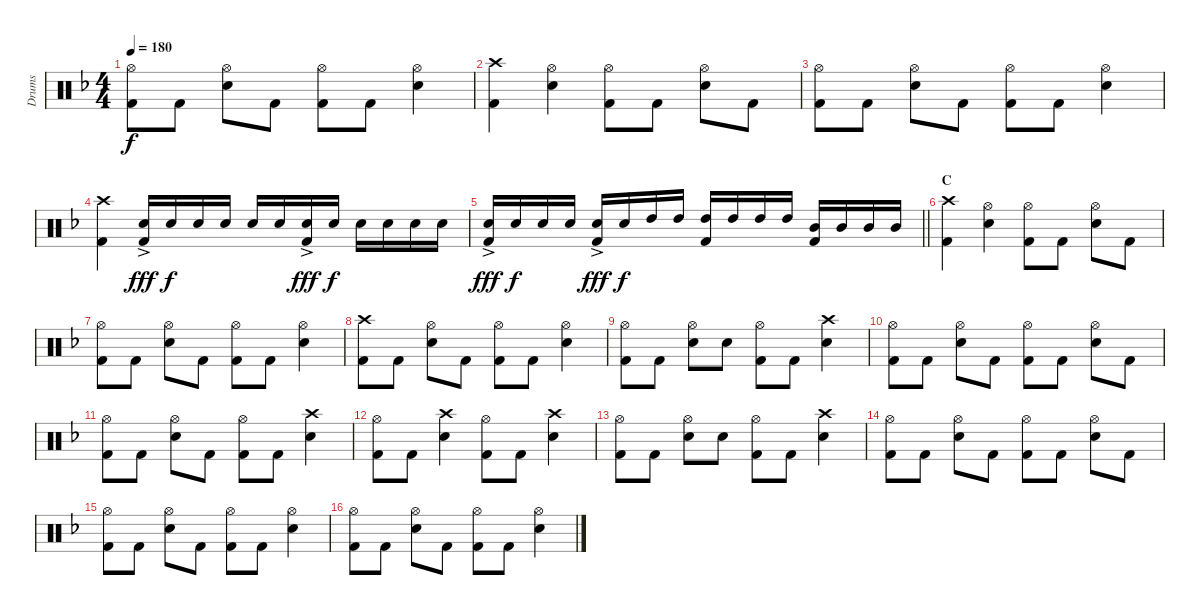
\track ("Drums" "Drums") {instrument percussion}
\staff {score}
\articulation defaults
\ts (4 4)
\tempo 180
\clef neutral
\ks dminor
("Hi-Hat (open)" "Kick (hit) 2").8{dy f} "Kick (hit) 2".8 ("Hi-Hat (open)" "Snare (hit) 2").8 "Kick (hit) 2".8 ("Hi-Hat (open)" "Kick (hit) 2").8 "Kick (hit) 2".8 ("Hi-Hat (open)" "Snare (hit) 2").4 |
("Crash high (hit)" "Kick (hit) 2").4 ("Hi-Hat (open)" "Snare (hit) 2").4 ("Hi-Hat (open)" "Kick (hit) 2").8 "Kick (hit) 2".8 ("Hi-Hat (open)" "Snare (hit) 2").8 "Kick (hit) 2".8 |
("Hi-Hat (open)" "Kick (hit) 2").8 "Kick (hit) 2".8 ("Hi-Hat (open)" "Snare (hit) 2").8 "Kick (hit) 2".8 ("Hi-Hat (open)" "Kick (hit) 2").8 "Kick (hit) 2".8 ("Hi-Hat (open)" "Snare (hit) 2").4 |
("Crash high (hit)" "Kick (hit) 2").4 ("Snare (hit) 2" "Kick (hit) 2"{ac}).16{dy fff} "Snare (hit) 2".16{dy f} "Snare (hit) 2".16 "Snare (hit) 2".16 "Snare (hit) 2".16 "Snare (hit) 2".16 ("Snare (hit) 2"{ac} "Kick (hit) 2").16{dy fff} "Snare (hit) 2".16{dy f} "Snare (hit) 2".16 "Snare (hit) 2".16 "Snare (hit) 2".16 "Snare (hit) 2".16 |
\barLineRight lightlight
("Snare (hit) 2"{ac} "Kick (hit) 2").16{dy fff} "Snare (hit) 2".16{dy f} "Snare (hit) 2".16 "Snare (hit) 2".16 ("Snare (hit) 2"{ac} "Kick (hit) 2").16{dy fff} "Snare (hit) 2".16{dy f} "High Tom (hit)".16 "High Tom (hit)".16 ("High Tom (hit)" "Kick (hit) 2").16 "High Tom (hit)".16 "High Tom (hit)".16 "High Tom (hit)".16 ("Mid Tom (hit)" "Kick (hit) 2").16 "Mid Tom (hit)".16 "Mid Tom (hit)".16 "Mid Tom (hit)".16 |
\section ("" "C")
("Crash high (hit)" "Kick (hit) 2").4 ("Hi-Hat (open)" "Snare (hit) 2").4 ("Hi-Hat (open)" "Kick (hit) 2").8 "Kick (hit) 2".8 ("Hi-Hat (open)" "Snare (hit) 2").8 "Kick (hit) 2".8 |
("Hi-Hat (open)" "Kick (hit) 2").8 "Kick (hit) 2".8 ("Hi-Hat (open)" "Snare (hit) 2").8 "Kick (hit) 2".8 ("Hi-Hat (open)" "Kick (hit) 2").8 "Kick (hit) 2".8 ("Hi-Hat (open)" "Snare (hit) 2").4 |
("Crash high (hit)" "Kick (hit) 2").8 "Kick (hit) 2".8 ("Hi-Hat (open)" "Snare (hit) 2").8 "Kick (hit) 2".8 ("Hi-Hat (open)" "Kick (hit) 2").8 "Kick (hit) 2".8 ("Hi-Hat (open)" "Snare (hit) 2").4 |
("Hi-Hat (open)" "Kick (hit) 2").8 "Kick (hit) 2".8 ("Hi-Hat (open)" "Snare (hit) 2").8 "Snare (hit) 2".8 ("Hi-Hat (open)" "Kick (hit) 2").8 "Kick (hit) 2".8 ("Crash high (hit)" "Snare (hit) 2").4 |
("Hi-Hat (open)" "Kick (hit) 2").8 "Kick (hit) 2".8 ("Hi-Hat (open)" "Snare (hit) 2").8 "Kick (hit) 2".8 ("Hi-Hat (open)" "Kick (hit) 2").8 "Kick (hit) 2".8 ("Hi-Hat (open)" "Snare (hit) 2").8 "Kick (hit) 2".8 |
("Hi-Hat (open)" "Kick (hit) 2").8 "Kick (hit) 2".8 ("Hi-Hat (open)" "Snare (hit) 2").8 "Kick (hit) 2".8 ("Hi-Hat (open)" "Kick (hit) 2").8 "Kick (hit) 2".8 ("Crash high (hit)" "Snare (hit) 2").4 |
("Hi-Hat (open)" "Kick (hit) 2").8 "Kick (hit) 2".8 ("Crash high (hit)" "Snare (hit) 2").4 ("Hi-Hat (open)" "Kick (hit) 2").8 "Kick (hit) 2".8 ("Crash high (hit)" "Snare (hit) 2").4 |
("Hi-Hat (open)" "Kick (hit) 2").8 "Kick (hit) 2".8 ("Hi-Hat (open)" "Snare (hit) 2").8 "Snare (hit) 2".8 ("Hi-Hat (open)" "Kick (hit) 2").8 "Kick (hit) 2".8 ("Crash high (hit)" "Snare (hit) 2").4 |
("Hi-Hat (open)" "Kick (hit) 2").8 "Kick (hit) 2".8 ("Hi-Hat (open)" "Snare (hit) 2").8 "Kick (hit) 2".8 ("Hi-Hat (open)" "Kick (hit) 2").8 "Kick (hit) 2".8 ("Hi-Hat (open)" "Snare (hit) 2").8 "Kick (hit) 2".8 |
("Hi-Hat (open)" "Kick (hit) 2").8 "Kick (hit) 2".8 ("Hi-Hat (open)" "Snare (hit) 2").8 "Kick (hit) 2".8 ("Hi-Hat (open)" "Kick (hit) 2").8 "Kick (hit) 2".8 ("Hi-Hat (open)" "Snare (hit) 2").4 |
("Hi-Hat (open)" "Kick (hit) 2").8 "Kick (hit) 2".8 ("Hi-Hat (open)" "Snare (hit) 2").8 "Kick (hit) 2".8 ("Hi-Hat (open)" "Kick (hit) 2").8 "Kick (hit) 2".8 ("Hi-Hat (open)" "Snare (hit) 2").4
